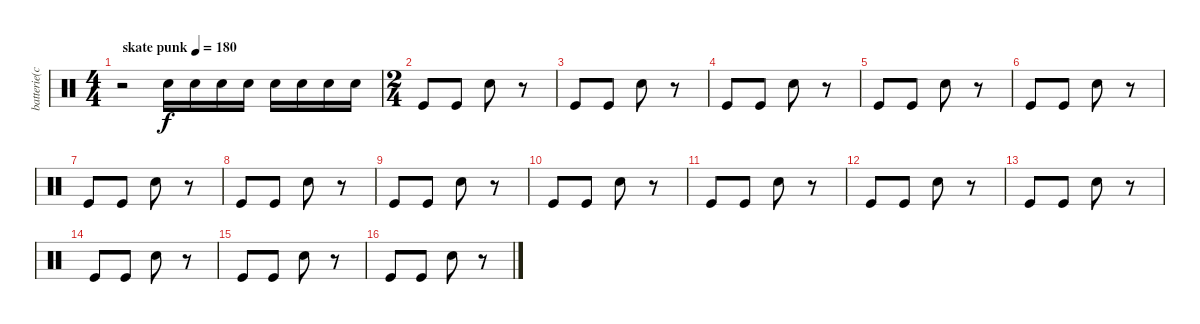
\track ("batterie(chip)" "batterie(c") {instrument percussion}
\staff {score}
\articulation defaults
\ts (4 4)
\tempo (180 "skate punk")
\clef neutral
\ks c
r.2{dy f} "Snare (hit) 2".16 "Snare (hit) 2".16 "Snare (hit) 2".16 "Snare (hit) 2".16 "Snare (hit) 2".16 "Snare (hit) 2".16 "Snare (hit) 2".16 "Snare (hit) 2".16 |
\ts (2 4)
"Kick (hit)".8 "Kick (hit)".8 "Snare (hit) 2".8 r.8 |
"Kick (hit)".8 "Kick (hit)".8 "Snare (hit) 2".8 r.8 |
"Kick (hit)".8 "Kick (hit)".8 "Snare (hit) 2".8 r.8 |
"Kick (hit)".8 "Kick (hit)".8 "Snare (hit) 2".8 r.8 |
"Kick (hit)".8 "Kick (hit)".8 "Snare (hit) 2".8 r.8 |
"Kick (hit)".8 "Kick (hit)".8 "Snare (hit) 2".8 r.8 |
"Kick (hit)".8 "Kick (hit)".8 "Snare (hit) 2".8 r.8 |
"Kick (hit)".8 "Kick (hit)".8 "Snare (hit) 2".8 r.8 |
"Kick (hit)".8 "Kick (hit)".8 "Snare (hit) 2".8 r.8 |
"Kick (hit)".8 "Kick (hit)".8 "Snare (hit) 2".8 r.8 |
"Kick (hit)".8 "Kick (hit)".8 "Snare (hit) 2".8 r.8 |
"Kick (hit)".8 "Kick (hit)".8 "Snare (hit) 2".8 r.8 |
"Kick (hit)".8 "Kick (hit)".8 "Snare (hit) 2".8 r.8 |
"Kick (hit)".8 "Kick (hit)".8 "Snare (hit) 2".8 r.8 |
"Kick (hit)".8 "Kick (hit)".8 "Snare (hit) 2".8 r.8
